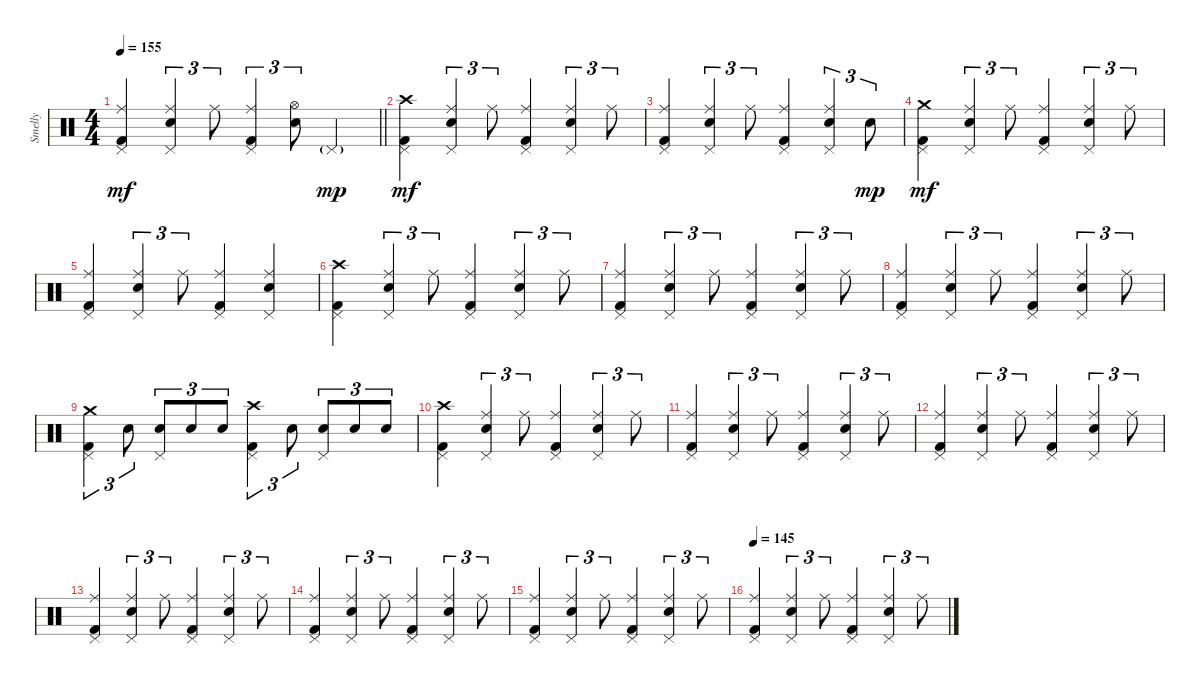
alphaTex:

\track ("Smelly" "Smelly") {instrument percussion}
\staff {score}
\articulation defaults
\ts (4 4)
\tempo 155
\clef neutral
\barLineRight lightlight
\ks c
("Pedal Hi-Hat (hit)" "Ride (middle)" "Kick (hit) 2").4{dy mf} ("Pedal Hi-Hat (hit)" "Ride (middle)" "Electric Snare (hit)").4{tu (3 2)} "Ride (middle)".8{tu (3 2)} ("Pedal Hi-Hat (hit)" "Ride (middle)" "Kick (hit) 2").4{tu (3 2)} ("Hi-Hat (open)" "Electric Snare (hit)").8{tu (3 2)} "Pedal Hi-Hat (hit)"{g}.4{dy mp} |
\section ("" "")
("Pedal Hi-Hat (hit)" "Crash high (hit)" "Kick (hit) 2").4{dy mf} ("Pedal Hi-Hat (hit)" "Ride (middle)" "Electric Snare (hit)").4{tu (3 2)} "Ride (middle)".8{tu (3 2)} ("Pedal Hi-Hat (hit)" "Ride (middle)" "Kick (hit) 2").4 ("Pedal Hi-Hat (hit)" "Ride (middle)" "Electric Snare (hit)").4{tu (3 2)} "Ride (middle)".8{tu (3 2)} |
("Pedal Hi-Hat (hit)" "Ride (middle)" "Kick (hit) 2").4 ("Pedal Hi-Hat (hit)" "Ride (middle)" "Electric Snare (hit)").4{tu (3 2)} "Ride (middle)".8{tu (3 2)} ("Pedal Hi-Hat (hit)" "Ride (middle)" "Kick (hit) 2").4 ("Pedal Hi-Hat (hit)" "Ride (middle)" "Electric Snare (hit)").4{tu (3 2)} "Electric Snare (hit)".8{tu (3 2) dy mp} |
("Pedal Hi-Hat (hit)" "Crash medium (hit)" "Kick (hit) 2").4{dy mf} ("Pedal Hi-Hat (hit)" "Ride (middle)" "Electric Snare (hit)").4{tu (3 2)} "Ride (middle)".8{tu (3 2)} ("Pedal Hi-Hat (hit)" "Ride (middle)" "Kick (hit) 2").4 ("Pedal Hi-Hat (hit)" "Ride (middle)" "Electric Snare (hit)").4{tu (3 2)} "Ride (middle)".8{tu (3 2)} |
("Pedal Hi-Hat (hit)" "Ride (middle)" "Kick (hit) 2").4 ("Pedal Hi-Hat (hit)" "Ride (middle)" "Electric Snare (hit)").4{tu (3 2)} "Ride (middle)".8{tu (3 2)} ("Pedal Hi-Hat (hit)" "Ride (middle)" "Kick (hit) 2").4 ("Pedal Hi-Hat (hit)" "Ride (middle)" "Electric Snare (hit)").4 |
("Pedal Hi-Hat (hit)" "Crash high (hit)" "Kick (hit) 2").4 ("Pedal Hi-Hat (hit)" "Ride (middle)" "Electric Snare (hit)").4{tu (3 2)} "Ride (middle)".8{tu (3 2)} ("Pedal Hi-Hat (hit)" "Ride (middle)" "Kick (hit) 2").4 ("Pedal Hi-Hat (hit)" "Ride (middle)" "Electric Snare (hit)").4{tu (3 2)} "Ride (middle)".8{tu (3 2)} |
("Pedal Hi-Hat (hit)" "Ride (middle)" "Kick (hit) 2").4 ("Pedal Hi-Hat (hit)" "Ride (middle)" "Electric Snare (hit)").4{tu (3 2)} "Ride (middle)".8{tu (3 2)} ("Pedal Hi-Hat (hit)" "Ride (middle)" "Kick (hit) 2").4 ("Pedal Hi-Hat (hit)" "Ride (middle)" "Electric Snare (hit)").4{tu (3 2)} "Ride (middle)".8{tu (3 2)} |
("Pedal Hi-Hat (hit)" "Ride (middle)" "Kick (hit) 2").4 ("Pedal Hi-Hat (hit)" "Ride (middle)" "Electric Snare (hit)").4{tu (3 2)} "Ride (middle)".8{tu (3 2)} ("Pedal Hi-Hat (hit)" "Ride (middle)" "Kick (hit) 2").4 ("Pedal Hi-Hat (hit)" "Ride (middle)" "Electric Snare (hit)").4{tu (3 2)} "Ride (middle)".8{tu (3 2)} |
("Pedal Hi-Hat (hit)" "Crash medium (hit)" "Kick (hit) 2").4{tu (3 2)} "Electric Snare (hit)".8{tu (3 2)} ("Pedal Hi-Hat (hit)" "Electric Snare (hit)").8{tu (3 2)} "Electric Snare (hit)".8{tu (3 2)} "Electric Snare (hit)".8{tu (3 2)} ("Pedal Hi-Hat (hit)" "Crash high (hit)" "Kick (hit) 2").4{tu (3 2)} "Electric Snare (hit)".8{tu (3 2)} ("Pedal Hi-Hat (hit)" "Electric Snare (hit)").8{tu (3 2)} "Electric Snare (hit)".8{tu (3 2)} "Electric Snare (hit)".8{tu (3 2)} |
("Pedal Hi-Hat (hit)" "Crash high (hit)" "Kick (hit) 2").4 ("Pedal Hi-Hat (hit)" "Ride (middle)" "Electric Snare (hit)").4{tu (3 2)} "Ride (middle)".8{tu (3 2)} ("Pedal Hi-Hat (hit)" "Ride (middle)" "Kick (hit) 2").4 ("Pedal Hi-Hat (hit)" "Ride (middle)" "Electric Snare (hit)").4{tu (3 2)} "Ride (middle)".8{tu (3 2)} |
("Pedal Hi-Hat (hit)" "Ride (middle)" "Kick (hit) 2").4 ("Pedal Hi-Hat (hit)" "Ride (middle)" "Electric Snare (hit)").4{tu (3 2)} "Ride (middle)".8{tu (3 2)} ("Pedal Hi-Hat (hit)" "Ride (middle)" "Kick (hit) 2").4 ("Pedal Hi-Hat (hit)" "Ride (middle)" "Electric Snare (hit)").4{tu (3 2)} "Ride (middle)".8{tu (3 2)} |
("Pedal Hi-Hat (hit)" "Ride (middle)" "Kick (hit) 2").4 ("Pedal Hi-Hat (hit)" "Ride (middle)" "Electric Snare (hit)").4{tu (3 2)} "Ride (middle)".8{tu (3 2)} ("Pedal Hi-Hat (hit)" "Ride (middle)" "Kick (hit) 2").4 ("Pedal Hi-Hat (hit)" "Ride (middle)" "Electric Snare (hit)").4{tu (3 2)} "Ride (middle)".8{tu (3 2)} |
("Pedal Hi-Hat (hit)" "Ride (middle)" "Kick (hit) 2").4 ("Pedal Hi-Hat (hit)" "Ride (middle)" "Electric Snare (hit)").4{tu (3 2)} "Ride (middle)".8{tu (3 2)} ("Pedal Hi-Hat (hit)" "Ride (middle)" "Kick (hit) 2").4 ("Pedal Hi-Hat (hit)" "Ride (middle)" "Electric Snare (hit)").4{tu (3 2)} "Ride (middle)".8{tu (3 2)} |
("Pedal Hi-Hat (hit)" "Ride (middle)" "Kick (hit) 2").4 ("Pedal Hi-Hat (hit)" "Ride (middle)" "Electric Snare (hit)").4{tu (3 2)} "Ride (middle)".8{tu (3 2)} ("Pedal Hi-Hat (hit)" "Ride (middle)" "Kick (hit) 2").4 ("Pedal Hi-Hat (hit)" "Ride (middle)" "Electric Snare (hit)").4{tu (3 2)} "Ride (middle)".8{tu (3 2)} |
("Pedal Hi-Hat (hit)" "Ride (middle)" "Kick (hit) 2").4 ("Pedal Hi-Hat (hit)" "Ride (middle)" "Electric Snare (hit)").4{tu (3 2)} "Ride (middle)".8{tu (3 2)} ("Pedal Hi-Hat (hit)" "Ride (middle)" "Kick (hit) 2").4 ("Pedal Hi-Hat (hit)" "Ride (middle)" "Electric Snare (hit)").4{tu (3 2)} "Ride (middle)".8{tu (3 2)} |
\tempo 145
("Pedal Hi-Hat (hit)" "Ride (middle)" "Kick (hit) 2").4 ("Pedal Hi-Hat (hit)" "Ride (middle)" "Electric Snare (hit)").4{tu (3 2)} "Ride (middle)".8{tu (3 2)} ("Pedal Hi-Hat (hit)" "Ride (middle)" "Kick (hit) 2").4 ("Pedal Hi-Hat (hit)" "Ride (middle)" "Electric Snare (hit)").4{tu (3 2)} "Ride (middle)".8{tu (3 2)}
